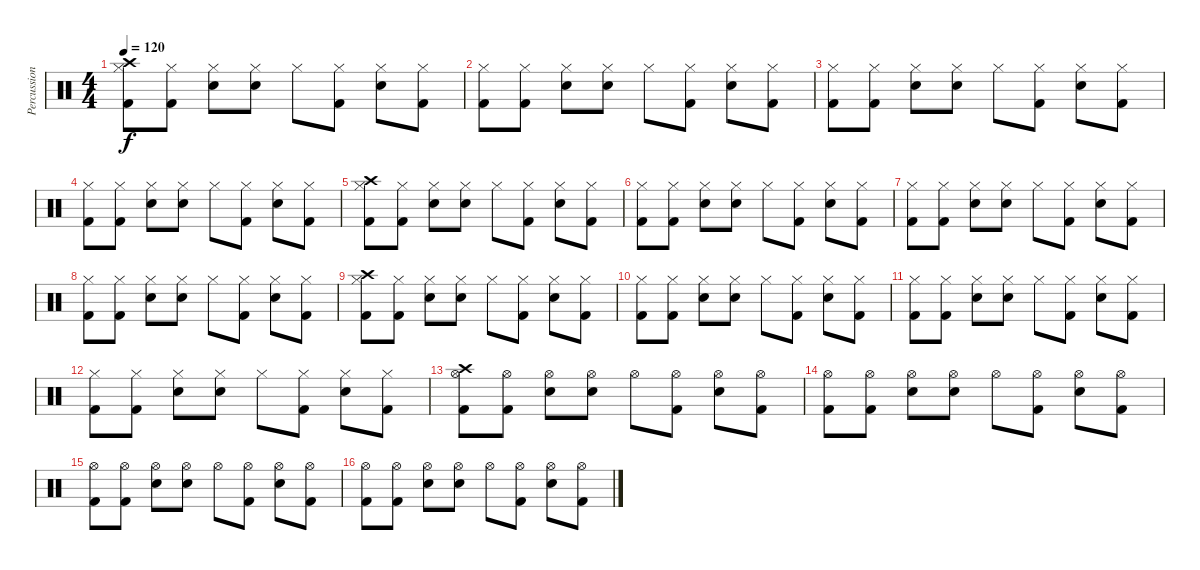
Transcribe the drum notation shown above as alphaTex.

\track ("Percussion" "Percussion") {instrument percussion}
\staff {score}
\articulation defaults
\ts (4 4)
\tempo 120
\clef neutral
\ks c
("Kick (hit) 2" "Hi-Hat (closed)" "Crash high (hit)").8{dy f} ("Kick (hit) 2" "Hi-Hat (closed)").8 ("Electric Snare (hit)" "Hi-Hat (closed)").8 ("Electric Snare (hit)" "Hi-Hat (closed)").8 "Hi-Hat (closed)".8 ("Kick (hit) 2" "Hi-Hat (closed)").8 ("Electric Snare (hit)" "Hi-Hat (closed)").8 ("Kick (hit) 2" "Hi-Hat (closed)").8 |
("Kick (hit) 2" "Hi-Hat (closed)").8 ("Kick (hit) 2" "Hi-Hat (closed)").8 ("Electric Snare (hit)" "Hi-Hat (closed)").8 ("Electric Snare (hit)" "Hi-Hat (closed)").8 "Hi-Hat (closed)".8 ("Kick (hit) 2" "Hi-Hat (closed)").8 ("Electric Snare (hit)" "Hi-Hat (closed)").8 ("Kick (hit) 2" "Hi-Hat (closed)").8 |
("Kick (hit) 2" "Hi-Hat (closed)").8 ("Kick (hit) 2" "Hi-Hat (closed)").8 ("Electric Snare (hit)" "Hi-Hat (closed)").8 ("Electric Snare (hit)" "Hi-Hat (closed)").8 "Hi-Hat (closed)".8 ("Kick (hit) 2" "Hi-Hat (closed)").8 ("Electric Snare (hit)" "Hi-Hat (closed)").8 ("Kick (hit) 2" "Hi-Hat (closed)").8 |
("Kick (hit) 2" "Hi-Hat (closed)").8 ("Kick (hit) 2" "Hi-Hat (closed)").8 ("Electric Snare (hit)" "Hi-Hat (closed)").8 ("Electric Snare (hit)" "Hi-Hat (closed)").8 "Hi-Hat (closed)".8 ("Kick (hit) 2" "Hi-Hat (closed)").8 ("Electric Snare (hit)" "Hi-Hat (closed)").8 ("Kick (hit) 2" "Hi-Hat (closed)").8 |
("Kick (hit) 2" "Hi-Hat (closed)" "Crash high (hit)").8 ("Kick (hit) 2" "Hi-Hat (closed)").8 ("Electric Snare (hit)" "Hi-Hat (closed)").8 ("Electric Snare (hit)" "Hi-Hat (closed)").8 "Hi-Hat (closed)".8 ("Kick (hit) 2" "Hi-Hat (closed)").8 ("Electric Snare (hit)" "Hi-Hat (closed)").8 ("Kick (hit) 2" "Hi-Hat (closed)").8 |
("Kick (hit) 2" "Hi-Hat (closed)").8 ("Kick (hit) 2" "Hi-Hat (closed)").8 ("Electric Snare (hit)" "Hi-Hat (closed)").8 ("Electric Snare (hit)" "Hi-Hat (closed)").8 "Hi-Hat (closed)".8 ("Kick (hit) 2" "Hi-Hat (closed)").8 ("Electric Snare (hit)" "Hi-Hat (closed)").8 ("Kick (hit) 2" "Hi-Hat (closed)").8 |
("Kick (hit) 2" "Hi-Hat (closed)").8 ("Kick (hit) 2" "Hi-Hat (closed)").8 ("Electric Snare (hit)" "Hi-Hat (closed)").8 ("Electric Snare (hit)" "Hi-Hat (closed)").8 "Hi-Hat (closed)".8 ("Kick (hit) 2" "Hi-Hat (closed)").8 ("Electric Snare (hit)" "Hi-Hat (closed)").8 ("Kick (hit) 2" "Hi-Hat (closed)").8 |
("Kick (hit) 2" "Hi-Hat (closed)").8 ("Kick (hit) 2" "Hi-Hat (closed)").8 ("Electric Snare (hit)" "Hi-Hat (closed)").8 ("Electric Snare (hit)" "Hi-Hat (closed)").8 "Hi-Hat (closed)".8 ("Kick (hit) 2" "Hi-Hat (closed)").8 ("Electric Snare (hit)" "Hi-Hat (closed)").8 ("Kick (hit) 2" "Hi-Hat (closed)").8 |
("Kick (hit) 2" "Hi-Hat (closed)" "Crash high (hit)").8 ("Kick (hit) 2" "Hi-Hat (closed)").8 ("Electric Snare (hit)" "Hi-Hat (closed)").8 ("Electric Snare (hit)" "Hi-Hat (closed)").8 "Hi-Hat (closed)".8 ("Kick (hit) 2" "Hi-Hat (closed)").8 ("Electric Snare (hit)" "Hi-Hat (closed)").8 ("Kick (hit) 2" "Hi-Hat (closed)").8 |
("Kick (hit) 2" "Hi-Hat (closed)").8 ("Kick (hit) 2" "Hi-Hat (closed)").8 ("Electric Snare (hit)" "Hi-Hat (closed)").8 ("Electric Snare (hit)" "Hi-Hat (closed)").8 "Hi-Hat (closed)".8 ("Kick (hit) 2" "Hi-Hat (closed)").8 ("Electric Snare (hit)" "Hi-Hat (closed)").8 ("Kick (hit) 2" "Hi-Hat (closed)").8 |
("Kick (hit) 2" "Hi-Hat (closed)").8 ("Kick (hit) 2" "Hi-Hat (closed)").8 ("Electric Snare (hit)" "Hi-Hat (closed)").8 ("Electric Snare (hit)" "Hi-Hat (closed)").8 "Hi-Hat (closed)".8 ("Kick (hit) 2" "Hi-Hat (closed)").8 ("Electric Snare (hit)" "Hi-Hat (closed)").8 ("Kick (hit) 2" "Hi-Hat (closed)").8 |
("Kick (hit) 2" "Hi-Hat (closed)").8 ("Kick (hit) 2" "Hi-Hat (closed)").8 ("Electric Snare (hit)" "Hi-Hat (closed)").8 ("Electric Snare (hit)" "Hi-Hat (closed)").8 "Hi-Hat (closed)".8 ("Kick (hit) 2" "Hi-Hat (closed)").8 ("Electric Snare (hit)" "Hi-Hat (closed)").8 ("Kick (hit) 2" "Hi-Hat (closed)").8 |
("Kick (hit) 2" "Hi-Hat (open)" "Crash high (hit)").8 ("Kick (hit) 2" "Hi-Hat (open)").8 ("Electric Snare (hit)" "Hi-Hat (open)").8 ("Electric Snare (hit)" "Hi-Hat (open)").8 "Hi-Hat (open)".8 ("Kick (hit) 2" "Hi-Hat (open)").8 ("Electric Snare (hit)" "Hi-Hat (open)").8 ("Kick (hit) 2" "Hi-Hat (open)").8 |
("Kick (hit) 2" "Hi-Hat (open)").8 ("Kick (hit) 2" "Hi-Hat (open)").8 ("Electric Snare (hit)" "Hi-Hat (open)").8 ("Electric Snare (hit)" "Hi-Hat (open)").8 "Hi-Hat (open)".8 ("Kick (hit) 2" "Hi-Hat (open)").8 ("Electric Snare (hit)" "Hi-Hat (open)").8 ("Kick (hit) 2" "Hi-Hat (open)").8 |
("Kick (hit) 2" "Hi-Hat (open)").8 ("Kick (hit) 2" "Hi-Hat (open)").8 ("Electric Snare (hit)" "Hi-Hat (open)").8 ("Electric Snare (hit)" "Hi-Hat (open)").8 "Hi-Hat (open)".8 ("Kick (hit) 2" "Hi-Hat (open)").8 ("Electric Snare (hit)" "Hi-Hat (open)").8 ("Kick (hit) 2" "Hi-Hat (open)").8 |
("Kick (hit) 2" "Hi-Hat (open)").8 ("Kick (hit) 2" "Hi-Hat (open)").8 ("Electric Snare (hit)" "Hi-Hat (open)").8 ("Electric Snare (hit)" "Hi-Hat (open)").8 "Hi-Hat (open)".8 ("Kick (hit) 2" "Hi-Hat (open)").8 ("Electric Snare (hit)" "Hi-Hat (open)").8 ("Kick (hit) 2" "Hi-Hat (open)").8
